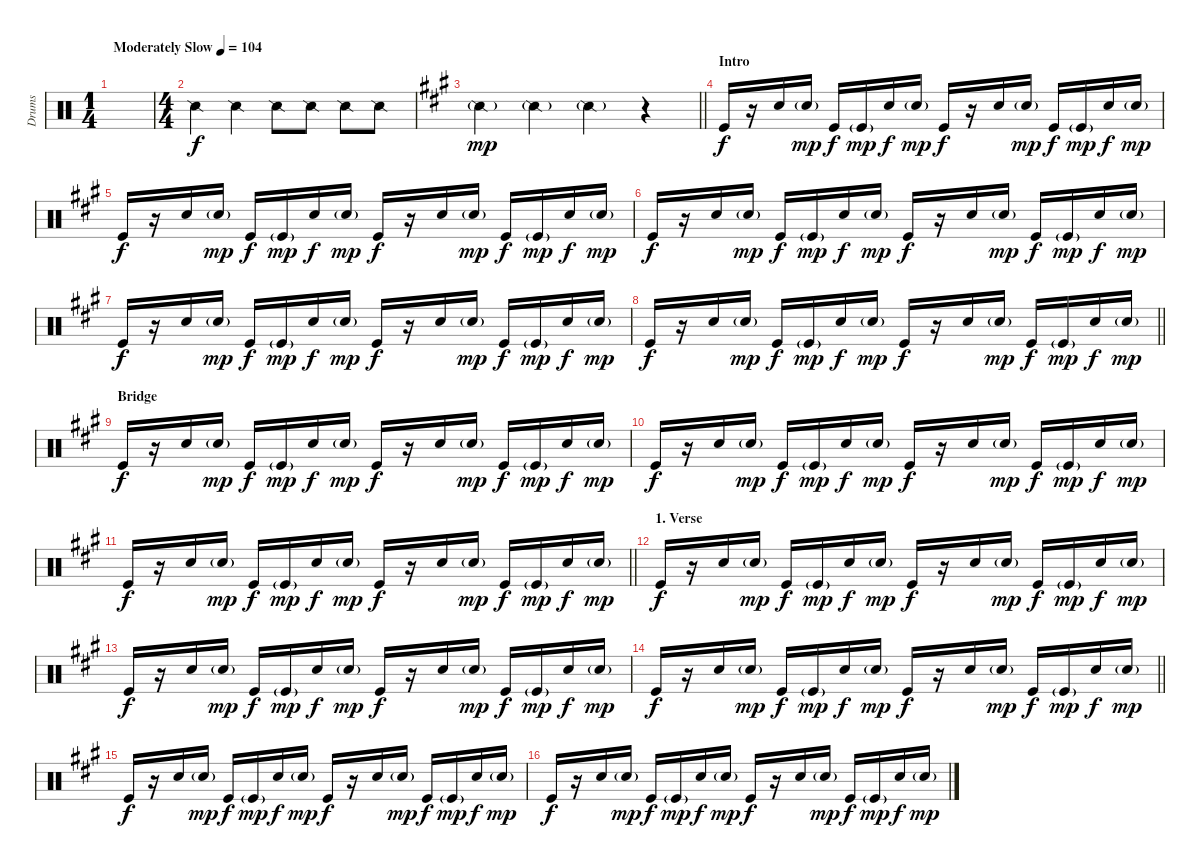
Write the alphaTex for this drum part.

\track ("Drums" "Drums") {instrument percussion}
\staff {score}
\articulation defaults
\ts (1 4)
\tempo (104 "Moderately Slow")
\clef neutral
\ks c
|
\ts (4 4)
"Snare (side stick) 2".4 "Snare (side stick) 2".4 "Snare (side stick) 2".8 "Snare (side stick) 2".8 "Snare (side stick) 2".8 "Snare (side stick) 2".8 |
\barLineRight lightlight
\ks a "Snare (side stick) 2"{g}.4{dy mp} "Snare (side stick) 2"{g}.4 "Snare (side stick) 2"{g}.4
r.4 |
\section ("" "Intro")
"Kick (hit)".16{dy f} r.16 "Electric Snare (hit)".16 "Electric Snare (hit)"{g}.16{dy mp} "Kick (hit)".16{dy f} "Kick (hit)"{g}.16{dy mp} "Electric Snare (hit)".16{dy f} "Electric Snare (hit)"{g}.16{dy mp} "Kick (hit)".16{dy f} r.16 "Electric Snare (hit)".16 "Electric Snare (hit)"{g}.16{dy mp} "Kick (hit)".16{dy f} "Kick (hit)"{g}.16{dy mp} "Electric Snare (hit)".16{dy f} "Electric Snare (hit)"{g}.16{dy mp} |
"Kick (hit)".16{dy f} r.16 "Electric Snare (hit)".16 "Electric Snare (hit)"{g}.16{dy mp} "Kick (hit)".16{dy f} "Kick (hit)"{g}.16{dy mp} "Electric Snare (hit)".16{dy f} "Electric Snare (hit)"{g}.16{dy mp} "Kick (hit)".16{dy f} r.16 "Electric Snare (hit)".16 "Electric Snare (hit)"{g}.16{dy mp} "Kick (hit)".16{dy f} "Kick (hit)"{g}.16{dy mp} "Electric Snare (hit)".16{dy f} "Electric Snare (hit)"{g}.16{dy mp} |
"Kick (hit)".16{dy f} r.16 "Electric Snare (hit)".16 "Electric Snare (hit)"{g}.16{dy mp} "Kick (hit)".16{dy f} "Kick (hit)"{g}.16{dy mp} "Electric Snare (hit)".16{dy f} "Electric Snare (hit)"{g}.16{dy mp} "Kick (hit)".16{dy f} r.16 "Electric Snare (hit)".16 "Electric Snare (hit)"{g}.16{dy mp} "Kick (hit)".16{dy f} "Kick (hit)"{g}.16{dy mp} "Electric Snare (hit)".16{dy f} "Electric Snare (hit)"{g}.16{dy mp} |
"Kick (hit)".16{dy f} r.16 "Electric Snare (hit)".16 "Electric Snare (hit)"{g}.16{dy mp} "Kick (hit)".16{dy f} "Kick (hit)"{g}.16{dy mp} "Electric Snare (hit)".16{dy f} "Electric Snare (hit)"{g}.16{dy mp} "Kick (hit)".16{dy f} r.16 "Electric Snare (hit)".16 "Electric Snare (hit)"{g}.16{dy mp} "Kick (hit)".16{dy f} "Kick (hit)"{g}.16{dy mp} "Electric Snare (hit)".16{dy f} "Electric Snare (hit)"{g}.16{dy mp} |
\barLineRight lightlight "Kick (hit)".16{dy f}
r.16 "Electric Snare (hit)".16 "Electric Snare (hit)"{g}.16{dy mp} "Kick (hit)".16{dy f} "Kick (hit)"{g}.16{dy mp} "Electric Snare (hit)".16{dy f} "Electric Snare (hit)"{g}.16{dy mp} "Kick (hit)".16{dy f} r.16 "Electric Snare (hit)".16 "Electric Snare (hit)"{g}.16{dy mp} "Kick (hit)".16{dy f} "Kick (hit)"{g}.16{dy mp} "Electric Snare (hit)".16{dy f} "Electric Snare (hit)"{g}.16{dy mp} |
\section ("" "Bridge")
"Kick (hit)".16{dy f} r.16 "Electric Snare (hit)".16 "Electric Snare (hit)"{g}.16{dy mp} "Kick (hit)".16{dy f} "Kick (hit)"{g}.16{dy mp} "Electric Snare (hit)".16{dy f} "Electric Snare (hit)"{g}.16{dy mp} "Kick (hit)".16{dy f} r.16 "Electric Snare (hit)".16 "Electric Snare (hit)"{g}.16{dy mp} "Kick (hit)".16{dy f} "Kick (hit)"{g}.16{dy mp} "Electric Snare (hit)".16{dy f} "Electric Snare (hit)"{g}.16{dy mp} |
"Kick (hit)".16{dy f} r.16 "Electric Snare (hit)".16 "Electric Snare (hit)"{g}.16{dy mp} "Kick (hit)".16{dy f} "Kick (hit)"{g}.16{dy mp} "Electric Snare (hit)".16{dy f} "Electric Snare (hit)"{g}.16{dy mp} "Kick (hit)".16{dy f} r.16 "Electric Snare (hit)".16 "Electric Snare (hit)"{g}.16{dy mp} "Kick (hit)".16{dy f} "Kick (hit)"{g}.16{dy mp} "Electric Snare (hit)".16{dy f} "Electric Snare (hit)"{g}.16{dy mp} |
\barLineRight lightlight "Kick (hit)".16{dy f}
r.16 "Electric Snare (hit)".16 "Electric Snare (hit)"{g}.16{dy mp} "Kick (hit)".16{dy f} "Kick (hit)"{g}.16{dy mp} "Electric Snare (hit)".16{dy f} "Electric Snare (hit)"{g}.16{dy mp} "Kick (hit)".16{dy f} r.16 "Electric Snare (hit)".16 "Electric Snare (hit)"{g}.16{dy mp} "Kick (hit)".16{dy f} "Kick (hit)"{g}.16{dy mp} "Electric Snare (hit)".16{dy f} "Electric Snare (hit)"{g}.16{dy mp} |
\section ("" "1. Verse")
"Kick (hit)".16{dy f} r.16 "Electric Snare (hit)".16 "Electric Snare (hit)"{g}.16{dy mp} "Kick (hit)".16{dy f} "Kick (hit)"{g}.16{dy mp} "Electric Snare (hit)".16{dy f} "Electric Snare (hit)"{g}.16{dy mp} "Kick (hit)".16{dy f} r.16 "Electric Snare (hit)".16 "Electric Snare (hit)"{g}.16{dy mp} "Kick (hit)".16{dy f} "Kick (hit)"{g}.16{dy mp} "Electric Snare (hit)".16{dy f} "Electric Snare (hit)"{g}.16{dy mp} |
"Kick (hit)".16{dy f} r.16 "Electric Snare (hit)".16 "Electric Snare (hit)"{g}.16{dy mp} "Kick (hit)".16{dy f} "Kick (hit)"{g}.16{dy mp} "Electric Snare (hit)".16{dy f} "Electric Snare (hit)"{g}.16{dy mp} "Kick (hit)".16{dy f} r.16 "Electric Snare (hit)".16 "Electric Snare (hit)"{g}.16{dy mp} "Kick (hit)".16{dy f} "Kick (hit)"{g}.16{dy mp} "Electric Snare (hit)".16{dy f} "Electric Snare (hit)"{g}.16{dy mp} |
\barLineRight lightlight "Kick (hit)".16{dy f}
r.16 "Electric Snare (hit)".16 "Electric Snare (hit)"{g}.16{dy mp} "Kick (hit)".16{dy f} "Kick (hit)"{g}.16{dy mp} "Electric Snare (hit)".16{dy f} "Electric Snare (hit)"{g}.16{dy mp} "Kick (hit)".16{dy f} r.16 "Electric Snare (hit)".16 "Electric Snare (hit)"{g}.16{dy mp} "Kick (hit)".16{dy f} "Kick (hit)"{g}.16{dy mp} "Electric Snare (hit)".16{dy f} "Electric Snare (hit)"{g}.16{dy mp} |
"Kick (hit)".16{dy f} r.16 "Electric Snare (hit)".16 "Electric Snare (hit)"{g}.16{dy mp} "Kick (hit)".16{dy f} "Kick (hit)"{g}.16{dy mp} "Electric Snare (hit)".16{dy f} "Electric Snare (hit)"{g}.16{dy mp} "Kick (hit)".16{dy f} r.16 "Electric Snare (hit)".16 "Electric Snare (hit)"{g}.16{dy mp} "Kick (hit)".16{dy f} "Kick (hit)"{g}.16{dy mp} "Electric Snare (hit)".16{dy f} "Electric Snare (hit)"{g}.16{dy mp} |
"Kick (hit)".16{dy f} r.16 "Electric Snare (hit)".16 "Electric Snare (hit)"{g}.16{dy mp} "Kick (hit)".16{dy f} "Kick (hit)"{g}.16{dy mp} "Electric Snare (hit)".16{dy f} "Electric Snare (hit)"{g}.16{dy mp} "Kick (hit)".16{dy f} r.16 "Electric Snare (hit)".16 "Electric Snare (hit)"{g}.16{dy mp} "Kick (hit)".16{dy f} "Kick (hit)"{g}.16{dy mp} "Electric Snare (hit)".16{dy f} "Electric Snare (hit)"{g}.16{dy mp}
